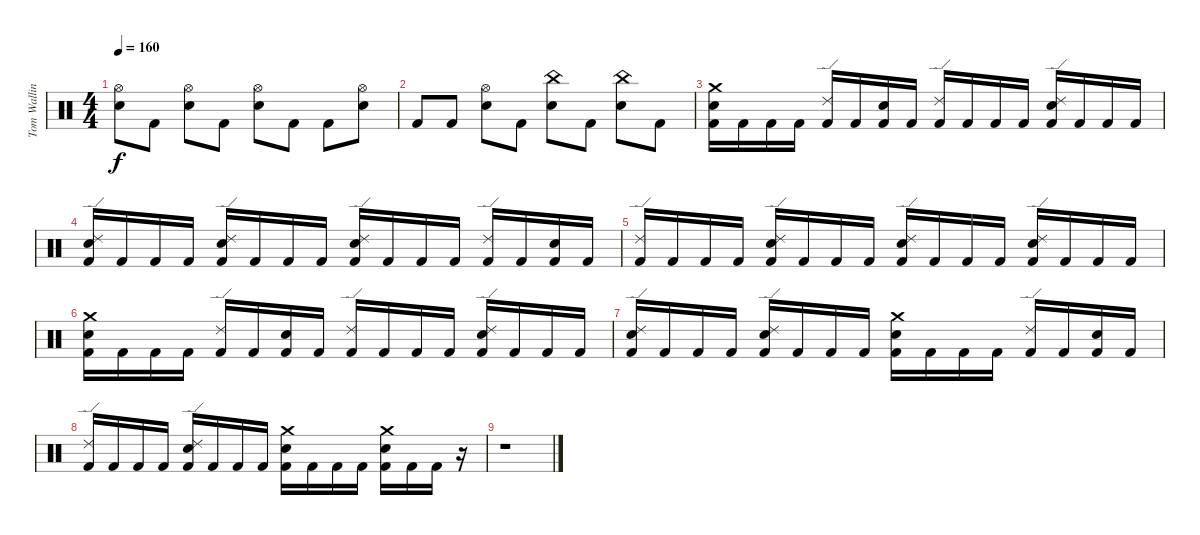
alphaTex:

\track ("Tom Walling (Drums)" "Tom Wallin") {instrument percussion}
\staff {score}
\articulation defaults
\ts (4 4)
\tempo 160
\clef neutral
\ks c
("Electric Snare (hit)" "Hi-Hat (open)").8{dy f} "Kick (hit) 2".8 ("Electric Snare (hit)" "Hi-Hat (open)").8 "Kick (hit) 2".8 ("Electric Snare (hit)" "Hi-Hat (open)").8 "Kick (hit) 2".8 "Kick (hit) 2".8 ("Hi-Hat (open)" "Electric Snare (hit)").8 |
"Kick (hit) 2".8 "Kick (hit) 2".8 ("Hi-Hat (open)" "Electric Snare (hit)").8 "Kick (hit) 2".8 ("China (hit)" "Electric Snare (hit)").8 "Kick (hit) 2".8 ("China (hit)" "Electric Snare (hit)").8 "Kick (hit) 2".8 |
("Crash medium (hit)" "Electric Snare (hit)" "Kick (hit) 2").16 "Kick (hit) 2".16 "Kick (hit) 2".16 "Kick (hit) 2".16 ("Ride (edge) 2" "Kick (hit) 2").16 "Kick (hit) 2".16 ("Electric Snare (hit)" "Kick (hit) 2").16 "Kick (hit) 2".16 ("Ride (edge) 2" "Kick (hit) 2").16 "Kick (hit) 2".16 "Kick (hit) 2".16 "Kick (hit) 2".16 ("Ride (edge) 2" "Electric Snare (hit)" "Kick (hit) 2").16 "Kick (hit) 2".16 "Kick (hit) 2".16 "Kick (hit) 2".16 |
("Ride (edge) 2" "Electric Snare (hit)" "Kick (hit) 2").16 "Kick (hit) 2".16 "Kick (hit) 2".16 "Kick (hit) 2".16 ("Ride (edge) 2" "Electric Snare (hit)" "Kick (hit) 2").16 "Kick (hit) 2".16 "Kick (hit) 2".16 "Kick (hit) 2".16 ("Ride (edge) 2" "Electric Snare (hit)" "Kick (hit) 2").16 "Kick (hit) 2".16 "Kick (hit) 2".16 "Kick (hit) 2".16 ("Ride (edge) 2" "Kick (hit) 2").16 "Kick (hit) 2".16 ("Electric Snare (hit)" "Kick (hit) 2").16 "Kick (hit) 2".16 |
("Ride (edge) 2" "Kick (hit) 2").16 "Kick (hit) 2".16 "Kick (hit) 2".16 "Kick (hit) 2".16 ("Ride (edge) 2" "Electric Snare (hit)" "Kick (hit) 2").16 "Kick (hit) 2".16 "Kick (hit) 2".16 "Kick (hit) 2".16 ("Ride (edge) 2" "Electric Snare (hit)" "Kick (hit) 2").16 "Kick (hit) 2".16 "Kick (hit) 2".16 "Kick (hit) 2".16 ("Ride (edge) 2" "Electric Snare (hit)" "Kick (hit) 2").16 "Kick (hit) 2".16 "Kick (hit) 2".16 "Kick (hit) 2".16 |
("Crash medium (hit)" "Electric Snare (hit)" "Kick (hit) 2").16 "Kick (hit) 2".16 "Kick (hit) 2".16 "Kick (hit) 2".16 ("Ride (edge) 2" "Kick (hit) 2").16 "Kick (hit) 2".16 ("Electric Snare (hit)" "Kick (hit) 2").16 "Kick (hit) 2".16 ("Ride (edge) 2" "Kick (hit) 2").16 "Kick (hit) 2".16 "Kick (hit) 2".16 "Kick (hit) 2".16 ("Ride (edge) 2" "Electric Snare (hit)" "Kick (hit) 2").16 "Kick (hit) 2".16 "Kick (hit) 2".16 "Kick (hit) 2".16 |
("Ride (edge) 2" "Electric Snare (hit)" "Kick (hit) 2").16 "Kick (hit) 2".16 "Kick (hit) 2".16 "Kick (hit) 2".16 ("Ride (edge) 2" "Electric Snare (hit)" "Kick (hit) 2").16 "Kick (hit) 2".16 "Kick (hit) 2".16 "Kick (hit) 2".16 ("Crash medium (hit)" "Electric Snare (hit)" "Kick (hit) 2").16 "Kick (hit) 2".16 "Kick (hit) 2".16 "Kick (hit) 2".16 ("Ride (edge) 2" "Kick (hit) 2").16 "Kick (hit) 2".16 ("Electric Snare (hit)" "Kick (hit) 2").16 "Kick (hit) 2".16 |
("Ride (edge) 2" "Kick (hit) 2").16 "Kick (hit) 2".16 "Kick (hit) 2".16 "Kick (hit) 2".16 ("Ride (edge) 2" "Electric Snare (hit)" "Kick (hit) 2").16 "Kick (hit) 2".16 "Kick (hit) 2".16 "Kick (hit) 2".16 ("Crash medium (hit)" "Electric Snare (hit)" "Kick (hit) 2").16 "Kick (hit) 2".16 "Kick (hit) 2".16 "Kick (hit) 2".16 ("Crash medium (hit)" "Electric Snare (hit)" "Kick (hit) 2").16 "Kick (hit) 2".16 "Kick (hit) 2".16 r.16 |
r.1
